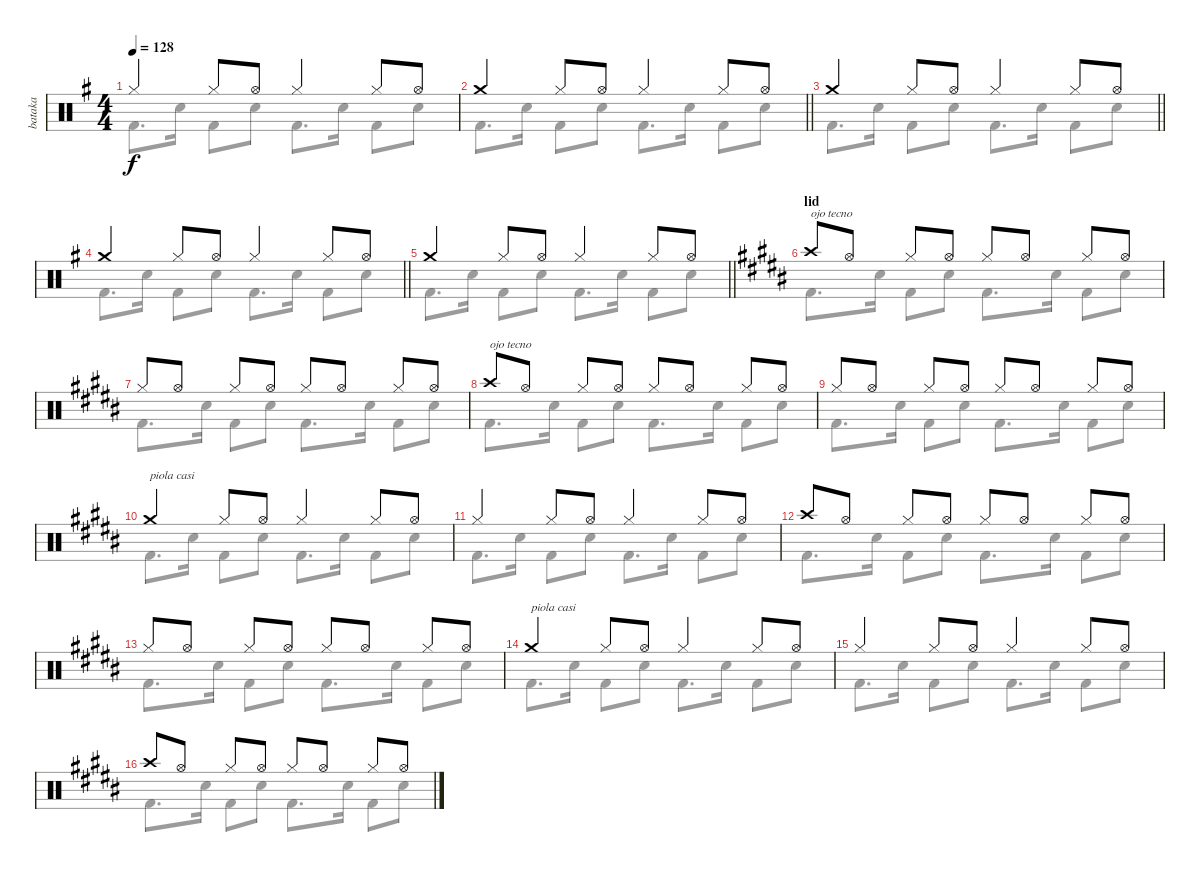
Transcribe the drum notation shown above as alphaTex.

\track ("bataka" "bataka") {mute instrument percussion}
\staff {score}
\articulation defaults
\voice
\ts (4 4)
\tempo 128
\clef neutral
\ks eminor "Hi-Hat (closed)".4{dy f} "Hi-Hat (closed)".8 "Hi-Hat (open)".8 "Hi-Hat (closed)".4 "Hi-Hat (closed)".8 "Hi-Hat (open)".8
|
\barLineRight lightlight "Crash medium (hit)".4 "Hi-Hat (closed)".8 "Hi-Hat (open)".8 "Hi-Hat (closed)".4 "Hi-Hat (closed)".8 "Hi-Hat (open)".8
|
\barLineRight lightlight "Crash medium (hit)".4 "Hi-Hat (closed)".8 "Hi-Hat (open)".8 "Hi-Hat (closed)".4 "Hi-Hat (closed)".8 "Hi-Hat (open)".8
|
\barLineRight lightlight "Crash medium (hit)".4 "Hi-Hat (closed)".8 "Hi-Hat (open)".8 "Hi-Hat (closed)".4 "Hi-Hat (closed)".8 "Hi-Hat (open)".8
|
\barLineRight lightlight "Crash medium (hit)".4 "Hi-Hat (closed)".8 "Hi-Hat (open)".8 "Hi-Hat (closed)".4 "Hi-Hat (closed)".8 "Hi-Hat (open)".8
|
\section ("" "lid")
\ks b "Crash high (hit)".8{txt "ojo tecno"} "Hi-Hat (open)".8 "Hi-Hat (closed)".8 "Hi-Hat (open)".8 "Hi-Hat (closed)".8 "Hi-Hat (open)".8 "Hi-Hat (closed)".8 "Hi-Hat (open)".8
|
"Hi-Hat (closed)".8 "Hi-Hat (open)".8 "Hi-Hat (closed)".8 "Hi-Hat (open)".8 "Hi-Hat (closed)".8 "Hi-Hat (open)".8 "Hi-Hat (closed)".8 "Hi-Hat (open)".8 |
"Crash high (hit)".8{txt "ojo tecno"} "Hi-Hat (open)".8 "Hi-Hat (closed)".8 "Hi-Hat (open)".8 "Hi-Hat (closed)".8 "Hi-Hat (open)".8 "Hi-Hat (closed)".8 "Hi-Hat (open)".8 |
"Hi-Hat (closed)".8 "Hi-Hat (open)".8 "Hi-Hat (closed)".8 "Hi-Hat (open)".8 "Hi-Hat (closed)".8 "Hi-Hat (open)".8 "Hi-Hat (closed)".8 "Hi-Hat (open)".8 |
"Crash medium (hit)".4{txt "piola casi"} "Hi-Hat (closed)".8 "Hi-Hat (open)".8 "Hi-Hat (closed)".4 "Hi-Hat (closed)".8 "Hi-Hat (open)".8 |
"Hi-Hat (closed)".4 "Hi-Hat (closed)".8 "Hi-Hat (open)".8 "Hi-Hat (closed)".4 "Hi-Hat (closed)".8 "Hi-Hat (open)".8 |
"Crash high (hit)".8 "Hi-Hat (open)".8 "Hi-Hat (closed)".8 "Hi-Hat (open)".8 "Hi-Hat (closed)".8 "Hi-Hat (open)".8 "Hi-Hat (closed)".8 "Hi-Hat (open)".8 |
"Hi-Hat (closed)".8 "Hi-Hat (open)".8 "Hi-Hat (closed)".8 "Hi-Hat (open)".8 "Hi-Hat (closed)".8 "Hi-Hat (open)".8 "Hi-Hat (closed)".8 "Hi-Hat (open)".8 |
"Crash medium (hit)".4{txt "piola casi"} "Hi-Hat (closed)".8 "Hi-Hat (open)".8 "Hi-Hat (closed)".4 "Hi-Hat (closed)".8 "Hi-Hat (open)".8 |
"Hi-Hat (closed)".4 "Hi-Hat (closed)".8 "Hi-Hat (open)".8 "Hi-Hat (closed)".4 "Hi-Hat (closed)".8 "Hi-Hat (open)".8 |
"Crash high (hit)".8 "Hi-Hat (open)".8 "Hi-Hat (closed)".8 "Hi-Hat (open)".8 "Hi-Hat (closed)".8 "Hi-Hat (open)".8 "Hi-Hat (closed)".8 "Hi-Hat (open)".8
\voice
\clef neutral
\ottava regular
\simile none
\ks eminor "Kick (hit) 2".8{d dy f} "Snare (hit) 2".16 "Kick (hit) 2".8 "Snare (hit) 2".8 "Kick (hit) 2".8{d} "Snare (hit) 2".16 "Kick (hit) 2".8 "Snare (hit) 2".8
|
\barLineRight lightlight "Kick (hit) 2".8{d} "Snare (hit) 2".16 "Kick (hit) 2".8 "Snare (hit) 2".8 "Kick (hit) 2".8{d} "Snare (hit) 2".16 "Kick (hit) 2".8 "Snare (hit) 2".8
|
\barLineRight lightlight "Kick (hit) 2".8{d} "Snare (hit) 2".16 "Kick (hit) 2".8 "Snare (hit) 2".8 "Kick (hit) 2".8{d} "Snare (hit) 2".16 "Kick (hit) 2".8 "Snare (hit) 2".8
|
\barLineRight lightlight "Kick (hit) 2".8{d} "Snare (hit) 2".16 "Kick (hit) 2".8 "Snare (hit) 2".8 "Kick (hit) 2".8{d} "Snare (hit) 2".16 "Kick (hit) 2".8 "Snare (hit) 2".8
|
\barLineRight lightlight "Kick (hit) 2".8{d} "Snare (hit) 2".16 "Kick (hit) 2".8 "Snare (hit) 2".8 "Kick (hit) 2".8{d} "Snare (hit) 2".16 "Kick (hit) 2".8 "Snare (hit) 2".8
|
\ks b "Kick (hit) 2".8{d} "Snare (hit) 2".16 "Kick (hit) 2".8 "Snare (hit) 2".8 "Kick (hit) 2".8{d} "Snare (hit) 2".16 "Kick (hit) 2".8 "Snare (hit) 2".8
|
"Kick (hit) 2".8{d} "Snare (hit) 2".16 "Kick (hit) 2".8 "Snare (hit) 2".8 "Kick (hit) 2".8{d} "Snare (hit) 2".16 "Kick (hit) 2".8 "Snare (hit) 2".8 |
"Kick (hit) 2".8{d} "Snare (hit) 2".16 "Kick (hit) 2".8 "Snare (hit) 2".8 "Kick (hit) 2".8{d} "Snare (hit) 2".16 "Kick (hit) 2".8 "Snare (hit) 2".8 |
"Kick (hit) 2".8{d} "Snare (hit) 2".16 "Kick (hit) 2".8 "Snare (hit) 2".8 "Kick (hit) 2".8{d} "Snare (hit) 2".16 "Kick (hit) 2".8 "Snare (hit) 2".8 |
"Kick (hit) 2".8{d} "Snare (hit) 2".16 "Kick (hit) 2".8 "Snare (hit) 2".8 "Kick (hit) 2".8{d} "Snare (hit) 2".16 "Kick (hit) 2".8 "Snare (hit) 2".8 |
"Kick (hit) 2".8{d} "Snare (hit) 2".16 "Kick (hit) 2".8 "Snare (hit) 2".8 "Kick (hit) 2".8{d} "Snare (hit) 2".16 "Kick (hit) 2".8 "Snare (hit) 2".8 |
"Kick (hit) 2".8{d} "Snare (hit) 2".16 "Kick (hit) 2".8 "Snare (hit) 2".8 "Kick (hit) 2".8{d} "Snare (hit) 2".16 "Kick (hit) 2".8 "Snare (hit) 2".8 |
"Kick (hit) 2".8{d} "Snare (hit) 2".16 "Kick (hit) 2".8 "Snare (hit) 2".8 "Kick (hit) 2".8{d} "Snare (hit) 2".16 "Kick (hit) 2".8 "Snare (hit) 2".8 |
"Kick (hit) 2".8{d} "Snare (hit) 2".16 "Kick (hit) 2".8 "Snare (hit) 2".8 "Kick (hit) 2".8{d} "Snare (hit) 2".16 "Kick (hit) 2".8 "Snare (hit) 2".8 |
"Kick (hit) 2".8{d} "Snare (hit) 2".16 "Kick (hit) 2".8 "Snare (hit) 2".8 "Kick (hit) 2".8{d} "Snare (hit) 2".16 "Kick (hit) 2".8 "Snare (hit) 2".8 |
"Kick (hit) 2".8{d} "Snare (hit) 2".16 "Kick (hit) 2".8 "Snare (hit) 2".8 "Kick (hit) 2".8{d} "Snare (hit) 2".16 "Kick (hit) 2".8 "Snare (hit) 2".8
